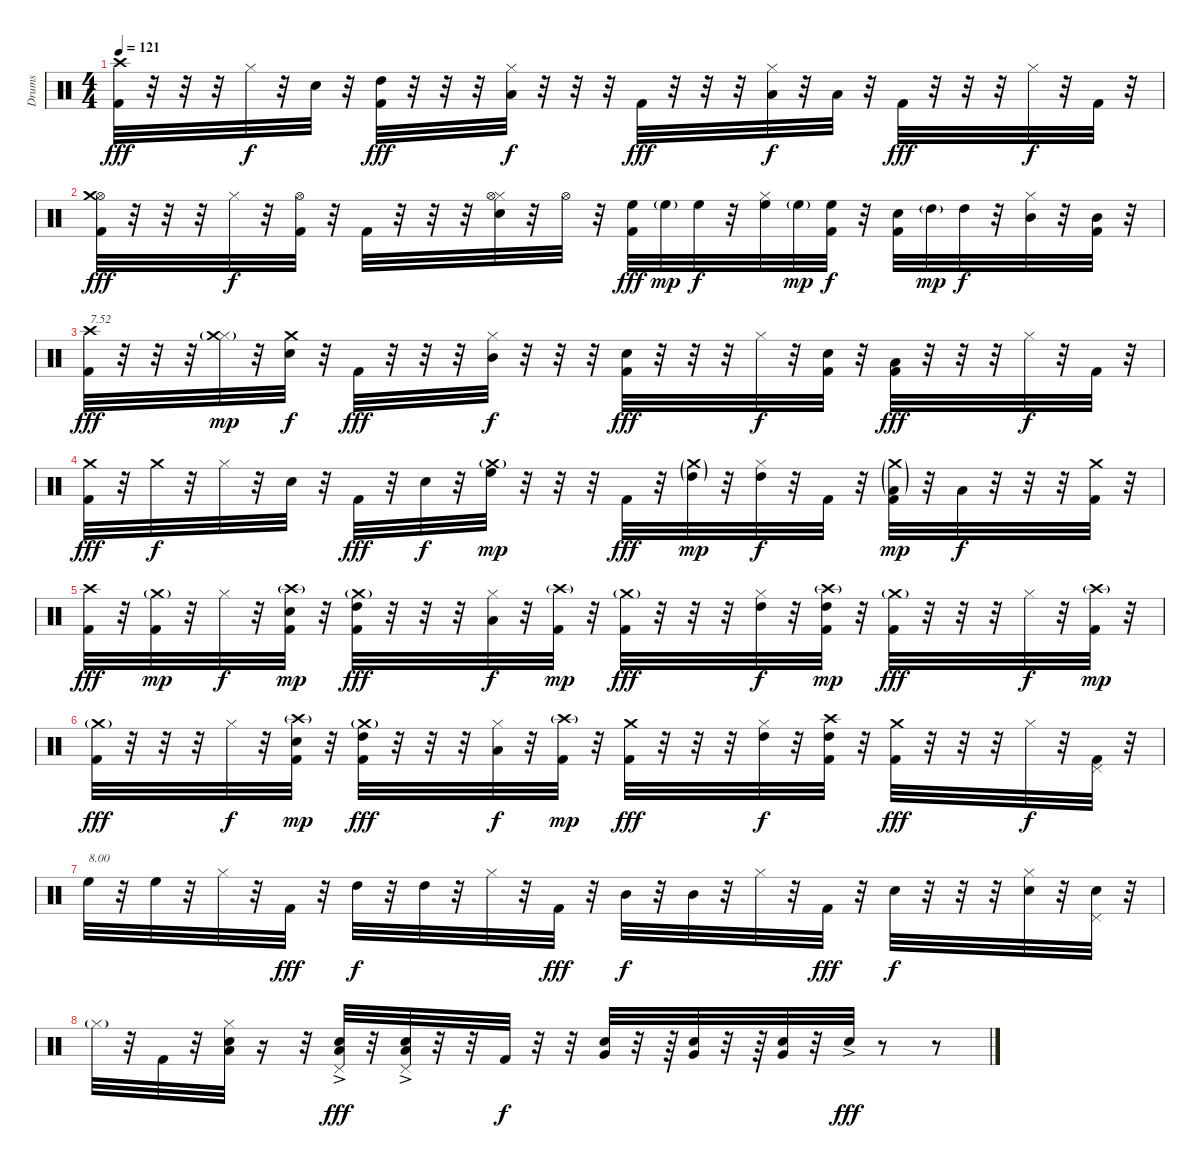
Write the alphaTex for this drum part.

\track ("Drums" "Drums") {instrument percussion}
\staff {score}
\articulation defaults
\ts (4 4)
\tempo 121
\clef neutral
\ks c
("Kick (hit) 2" "Crash high (hit)").32{dy fff} r.32 r.32 r.32 "Hi-Hat (closed)".32{dy f} r.32 "Snare (hit) 2".32 r.32 ("Kick (hit) 2" "High Tom (hit)").32{dy fff} r.32 r.32 r.32 ("Hi-Hat (closed)" "Low Tom (hit)").32{dy f} r.32 r.32 r.32 "Kick (hit) 2".32{dy fff} r.32 r.32 r.32 ("Hi-Hat (closed)" "Low Tom (hit)").32{dy f} r.32 "Low Tom (hit)".32 r.32 "Kick (hit) 2".32{dy fff} r.32 r.32 r.32 "Hi-Hat (closed)".32{dy f} r.32 "Kick (hit) 2".32 r.32 |
("Hi-Hat (open)" "Kick (hit) 2" "Crash medium (hit)").32{dy fff} r.32 r.32 r.32 "Hi-Hat (closed)".32{dy f} r.32 ("Hi-Hat (open)" "Kick (hit) 2").32 r.32 "Kick (hit) 2".32 r.32 r.32 r.32 ("Hi-Hat (closed)" "Hi-Hat (open)" "Snare (hit) 2").32 r.32 "Hi-Hat (open)".32 r.32 ("Kick (hit) 2" "High Floor Tom (hit)").32{dy fff} "High Floor Tom (hit)"{g}.32{dy mp} "High Floor Tom (hit)".32{dy f} r.32 ("Hi-Hat (closed)" "High Floor Tom (hit)").32 "High Floor Tom (hit)"{g}.32{dy mp} ("Kick (hit) 2" "High Floor Tom (hit)").32{dy f} r.32 ("Kick (hit) 2" "Snare (hit) 2").32 "High Tom (hit)"{g}.32{dy mp} "High Tom (hit)".32{dy f} r.32 ("Hi-Hat (closed)" "Mid Tom (hit)").32 r.32 ("Kick (hit) 2" "Mid Tom (hit)").32 r.32 |
("Kick (hit) 2" "Crash high (hit)").32{txt "7.52" dy fff} r.32 r.32 r.32 ("Hi-Hat (closed)" "Crash medium (hit)"{g}).32{dy mp} r.32 ("Crash medium (hit)" "Snare (hit) 2").32{dy f} r.32 "Kick (hit) 2".32{dy fff} r.32 r.32 r.32 ("Hi-Hat (closed)" "Mid Tom (hit)").32{dy f} r.32 r.32 r.32 ("Kick (hit) 2" "Snare (hit) 2").32{dy fff} r.32 r.32 r.32 "Hi-Hat (closed)".32{dy f} r.32 ("Kick (hit) 2" "Snare (hit) 2").32 r.32 ("Kick (hit) 2" "Low Tom (hit)").32{dy fff} r.32 r.32 r.32 "Hi-Hat (closed)".32{dy f} r.32 "Kick (hit) 2".32 r.32 |
("Kick (hit) 2" "Crash medium (hit)").32{dy fff} r.32 "Crash medium (hit)".32{dy f} r.32 "Hi-Hat (closed)".32 r.32 "Snare (hit) 2".32 r.32 "Kick (hit) 2".32{dy fff} r.32 "Snare (hit) 2".32{dy f} r.32 ("Crash medium (hit)"{g} "High Floor Tom (hit)").32{dy mp} r.32 r.32 r.32 "Kick (hit) 2".32{dy fff} r.32 ("Crash medium (hit)"{g} "High Tom (hit)"{g}).32{dy mp} r.32 ("Hi-Hat (closed)" "High Tom (hit)").32{dy f} r.32 "Kick (hit) 2".32 r.32 ("Crash medium (hit)"{g} "Kick (hit) 2" "Low Tom (hit)"{g}).32{dy mp} r.32 "Low Tom (hit)".32{dy f} r.32 r.32 r.32 ("Crash medium (hit)" "Kick (hit) 2").32 r.32 |
("Kick (hit) 2" "Crash high (hit)").32{dy fff} r.32 ("Crash medium (hit)"{g} "Kick (hit) 2").32{dy mp} r.32 "Hi-Hat (closed)".32{dy f} r.32 ("Crash high (hit)"{g} "Kick (hit) 2" "Snare (hit) 2").32{dy mp} r.32 ("Crash medium (hit)"{g} "Kick (hit) 2" "High Tom (hit)").32{dy fff} r.32 r.32 r.32 ("Hi-Hat (closed)" "Low Tom (hit)").32{dy f} r.32 ("Crash high (hit)"{g} "Kick (hit) 2").32{dy mp} r.32 ("Crash medium (hit)"{g} "Kick (hit) 2").32{dy fff} r.32 r.32 r.32 ("Hi-Hat (closed)" "High Tom (hit)").32{dy f} r.32 ("Crash high (hit)"{g} "Kick (hit) 2" "High Tom (hit)").32{dy mp} r.32 ("Crash medium (hit)"{g} "Kick (hit) 2").32{dy fff} r.32 r.32 r.32 "Hi-Hat (closed)".32{dy f} r.32 ("Crash high (hit)"{g} "Kick (hit) 2").32{dy mp} r.32 |
("Crash medium (hit)"{g} "Kick (hit) 2").32{dy fff} r.32 r.32 r.32 "Hi-Hat (closed)".32{dy f} r.32 ("Crash high (hit)"{g} "Kick (hit) 2" "Snare (hit) 2").32{dy mp} r.32 ("Crash medium (hit)"{g} "Kick (hit) 2" "High Tom (hit)").32{dy fff} r.32 r.32 r.32 ("Hi-Hat (closed)" "Low Tom (hit)").32{dy f} r.32 ("Crash high (hit)"{g} "Kick (hit) 2").32{dy mp} r.32 ("Crash medium (hit)" "Kick (hit) 2").32{dy fff} r.32 r.32 r.32 ("Hi-Hat (closed)" "High Tom (hit)").32{dy f} r.32 ("Crash high (hit)" "Kick (hit) 2" "High Tom (hit)").32 r.32 ("Crash medium (hit)" "Kick (hit) 2").32{dy fff} r.32 r.32 r.32 "Hi-Hat (closed)".32{dy f} r.32 ("Pedal Hi-Hat (hit)" "Kick (hit) 2").32 r.32 |
"High Floor Tom (hit)".32{txt "8.00"} r.32 "High Floor Tom (hit)".32 r.32 "Hi-Hat (closed)".32 r.32 "Kick (hit) 2".32{dy fff} r.32 "High Tom (hit)".32{dy f} r.32 "High Tom (hit)".32 r.32 "Hi-Hat (closed)".32 r.32 "Kick (hit) 2".32{dy fff} r.32 "Mid Tom (hit)".32{dy f} r.32 "Mid Tom (hit)".32 r.32 "Hi-Hat (closed)".32 r.32 "Kick (hit) 2".32{dy fff} r.32 "Snare (hit) 2".32{dy f} r.32 r.32 r.32 ("Hi-Hat (closed)" "Snare (hit) 2").32 r.32 ("Pedal Hi-Hat (hit)" "Snare (hit) 2").32 r.32 |
"Hi-Hat (closed)"{g}.32 r.32 "Kick (hit) 2".32 r.32 ("Hi-Hat (closed)" "Low Tom (hit)" "Snare (hit) 2").32 r.16 r.32 ("Pedal Hi-Hat (hit)"{ac} "Low Tom (hit)" "Snare (hit) 2").32{dy fff} r.32 ("Pedal Hi-Hat (hit)"{ac} "Low Tom (hit)" "Snare (hit) 2").32 r.32 r.32 "Kick (hit) 2".32{dy f} r.32 r.32 ("Very Low Tom (hit)" "Snare (hit) 2").32 r.32 r.64 ("Very Low Tom (hit)" "Snare (hit) 2").32 r.32 r.64 ("Very Low Tom (hit)" "Snare (hit) 2").32 r.32 "Snare (hit) 2"{ac}.32{dy fff} r.8 r.8
